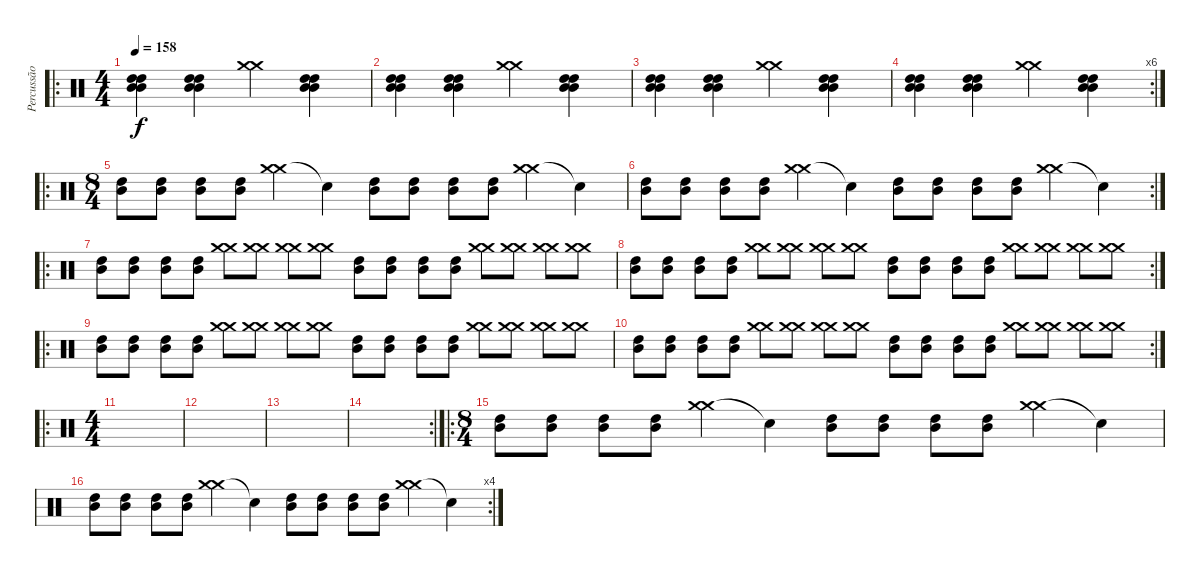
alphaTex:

\track ("Percussão" "Percussão") {instrument percussion}
\staff {score}
\articulation defaults
\ro
\ts (4 4)
\tempo 158
\clef neutral
\ks c
("High Tom (hit)" "High Tom (hit)" "Mid Tom (hit)" "Mid Tom (hit)").4{dy f} ("High Tom (hit)" "High Tom (hit)" "Mid Tom (hit)" "Mid Tom (hit)").4 ("Crash medium (hit)" "Crash medium (hit)").4 ("High Tom (hit)" "High Tom (hit)" "Mid Tom (hit)" "Mid Tom (hit)").4 |
("High Tom (hit)" "High Tom (hit)" "Mid Tom (hit)" "Mid Tom (hit)").4 ("High Tom (hit)" "High Tom (hit)" "Mid Tom (hit)" "Mid Tom (hit)").4 ("Crash medium (hit)" "Crash medium (hit)").4 ("High Tom (hit)" "High Tom (hit)" "Mid Tom (hit)" "Mid Tom (hit)").4 |
("High Tom (hit)" "High Tom (hit)" "Mid Tom (hit)" "Mid Tom (hit)").4 ("High Tom (hit)" "High Tom (hit)" "Mid Tom (hit)" "Mid Tom (hit)").4 ("Crash medium (hit)" "Crash medium (hit)").4 ("High Tom (hit)" "High Tom (hit)" "Mid Tom (hit)" "Mid Tom (hit)").4 |
\rc 6
("High Tom (hit)" "High Tom (hit)" "Mid Tom (hit)" "Mid Tom (hit)").4 ("High Tom (hit)" "High Tom (hit)" "Mid Tom (hit)" "Mid Tom (hit)").4 ("Crash medium (hit)" "Crash medium (hit)").4 ("High Tom (hit)" "High Tom (hit)" "Mid Tom (hit)" "Mid Tom (hit)").4 |
\ro
\ts (8 4)
("Mid Tom (hit)" "High Tom (hit)").8 ("Mid Tom (hit)" "High Tom (hit)").8 ("Mid Tom (hit)" "High Tom (hit)").8 ("Mid Tom (hit)" "High Tom (hit)").8 ("Crash medium (hit)" "Crash medium (hit)").4 "Snare (hit)"{t}.4 ("Mid Tom (hit)" "High Tom (hit)").8 ("Mid Tom (hit)" "High Tom (hit)").8 ("Mid Tom (hit)" "High Tom (hit)").8 ("Mid Tom (hit)" "High Tom (hit)").8 ("Crash medium (hit)" "Crash medium (hit)").4 "Snare (hit)"{t}.4 |
\rc 2
("Mid Tom (hit)" "High Tom (hit)").8 ("Mid Tom (hit)" "High Tom (hit)").8 ("Mid Tom (hit)" "High Tom (hit)").8 ("Mid Tom (hit)" "High Tom (hit)").8 ("Crash medium (hit)" "Crash medium (hit)").4 "Snare (hit)"{t}.4 ("Mid Tom (hit)" "High Tom (hit)").8 ("Mid Tom (hit)" "High Tom (hit)").8 ("Mid Tom (hit)" "High Tom (hit)").8 ("Mid Tom (hit)" "High Tom (hit)").8 ("Crash medium (hit)" "Crash medium (hit)").4 "Snare (hit)"{t}.4 |
\ro
("Mid Tom (hit)" "High Tom (hit)").8 ("Mid Tom (hit)" "High Tom (hit)").8 ("Mid Tom (hit)" "High Tom (hit)").8 ("Mid Tom (hit)" "High Tom (hit)").8 ("Crash medium (hit)" "Crash medium (hit)").8 ("Crash medium (hit)" "Crash medium (hit)").8 ("Crash medium (hit)" "Crash medium (hit)").8 ("Crash medium (hit)" "Crash medium (hit)").8 ("Mid Tom (hit)" "High Tom (hit)").8 ("Mid Tom (hit)" "High Tom (hit)").8 ("Mid Tom (hit)" "High Tom (hit)").8 ("Mid Tom (hit)" "High Tom (hit)").8 ("Crash medium (hit)" "Crash medium (hit)").8 ("Crash medium (hit)" "Crash medium (hit)").8 ("Crash medium (hit)" "Crash medium (hit)").8 ("Crash medium (hit)" "Crash medium (hit)").8 |
\rc 2
("Mid Tom (hit)" "High Tom (hit)").8 ("Mid Tom (hit)" "High Tom (hit)").8 ("Mid Tom (hit)" "High Tom (hit)").8 ("Mid Tom (hit)" "High Tom (hit)").8 ("Crash medium (hit)" "Crash medium (hit)").8 ("Crash medium (hit)" "Crash medium (hit)").8 ("Crash medium (hit)" "Crash medium (hit)").8 ("Crash medium (hit)" "Crash medium (hit)").8 ("Mid Tom (hit)" "High Tom (hit)").8 ("Mid Tom (hit)" "High Tom (hit)").8 ("Mid Tom (hit)" "High Tom (hit)").8 ("Mid Tom (hit)" "High Tom (hit)").8 ("Crash medium (hit)" "Crash medium (hit)").8 ("Crash medium (hit)" "Crash medium (hit)").8 ("Crash medium (hit)" "Crash medium (hit)").8 ("Crash medium (hit)" "Crash medium (hit)").8 |
\ro
("Mid Tom (hit)" "High Tom (hit)").8 ("Mid Tom (hit)" "High Tom (hit)").8 ("Mid Tom (hit)" "High Tom (hit)").8 ("Mid Tom (hit)" "High Tom (hit)").8 ("Crash medium (hit)" "Crash medium (hit)").8 ("Crash medium (hit)" "Crash medium (hit)").8 ("Crash medium (hit)" "Crash medium (hit)").8 ("Crash medium (hit)" "Crash medium (hit)").8 ("Mid Tom (hit)" "High Tom (hit)").8 ("Mid Tom (hit)" "High Tom (hit)").8 ("Mid Tom (hit)" "High Tom (hit)").8 ("Mid Tom (hit)" "High Tom (hit)").8 ("Crash medium (hit)" "Crash medium (hit)").8 ("Crash medium (hit)" "Crash medium (hit)").8 ("Crash medium (hit)" "Crash medium (hit)").8 ("Crash medium (hit)" "Crash medium (hit)").8 |
\rc 2
("Mid Tom (hit)" "High Tom (hit)").8 ("Mid Tom (hit)" "High Tom (hit)").8 ("Mid Tom (hit)" "High Tom (hit)").8 ("Mid Tom (hit)" "High Tom (hit)").8 ("Crash medium (hit)" "Crash medium (hit)").8 ("Crash medium (hit)" "Crash medium (hit)").8 ("Crash medium (hit)" "Crash medium (hit)").8 ("Crash medium (hit)" "Crash medium (hit)").8 ("Mid Tom (hit)" "High Tom (hit)").8 ("Mid Tom (hit)" "High Tom (hit)").8 ("Mid Tom (hit)" "High Tom (hit)").8 ("Mid Tom (hit)" "High Tom (hit)").8 ("Crash medium (hit)" "Crash medium (hit)").8 ("Crash medium (hit)" "Crash medium (hit)").8 ("Crash medium (hit)" "Crash medium (hit)").8 ("Crash medium (hit)" "Crash medium (hit)").8 |
\ro
\ts (4 4)
|
|
|
\rc 2
|
\ro
\ts (8 4)
("Mid Tom (hit)" "High Tom (hit)").8 ("Mid Tom (hit)" "High Tom (hit)").8 ("Mid Tom (hit)" "High Tom (hit)").8 ("Mid Tom (hit)" "High Tom (hit)").8 ("Crash medium (hit)" "Crash medium (hit)").4 "Snare (hit)"{t}.4 ("Mid Tom (hit)" "High Tom (hit)").8 ("Mid Tom (hit)" "High Tom (hit)").8 ("Mid Tom (hit)" "High Tom (hit)").8 ("Mid Tom (hit)" "High Tom (hit)").8 ("Crash medium (hit)" "Crash medium (hit)").4 "Snare (hit)"{t}.4 |
\rc 4
("Mid Tom (hit)" "High Tom (hit)").8 ("Mid Tom (hit)" "High Tom (hit)").8 ("Mid Tom (hit)" "High Tom (hit)").8 ("Mid Tom (hit)" "High Tom (hit)").8 ("Crash medium (hit)" "Crash medium (hit)").4 "Snare (hit)"{t}.4 ("Mid Tom (hit)" "High Tom (hit)").8 ("Mid Tom (hit)" "High Tom (hit)").8 ("Mid Tom (hit)" "High Tom (hit)").8 ("Mid Tom (hit)" "High Tom (hit)").8 ("Crash medium (hit)" "Crash medium (hit)").4 "Snare (hit)"{t}.4
